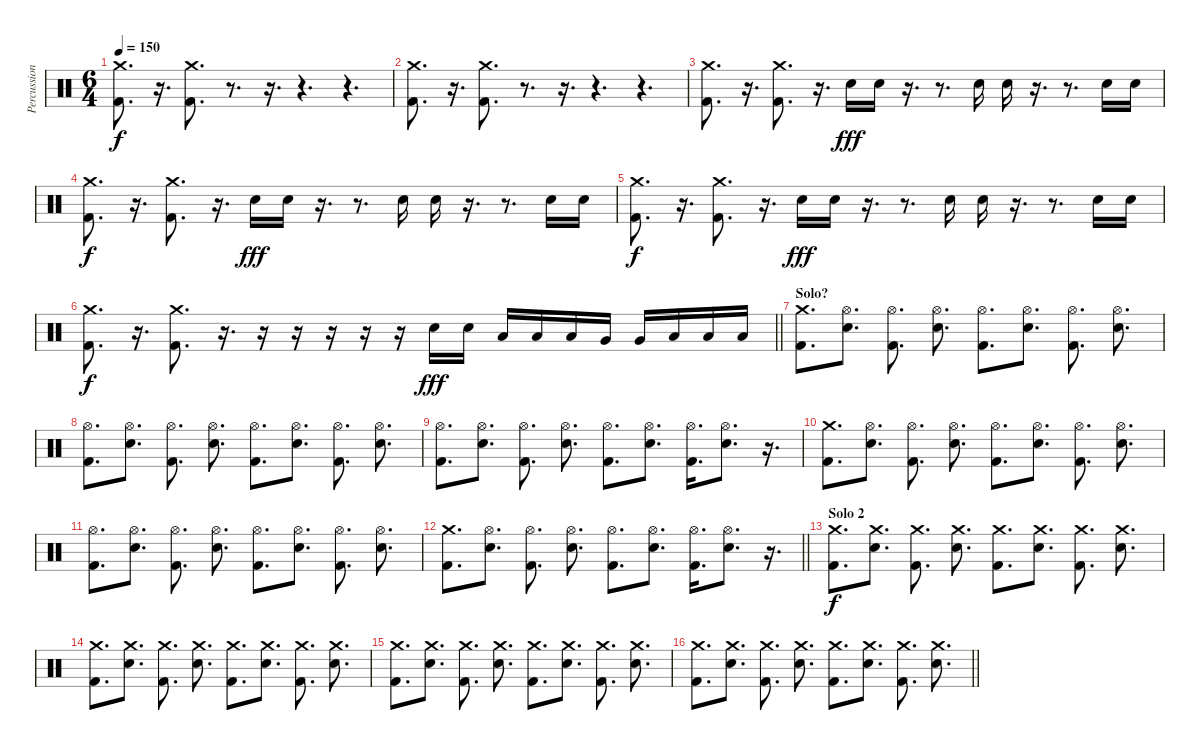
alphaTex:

\track ("Percussion" "Percussion") {solo instrument percussion}
\staff {score}
\articulation defaults
\ts (6 4)
\tempo 150
\clef neutral
\ks c
("Crash medium (hit)" "Kick (hit) 2").8{d dy f} r.16{d} ("Crash medium (hit)" "Kick (hit) 2").8{d} r.8{d} r.16{d} r.4{d} r.4{d} |
("Crash medium (hit)" "Kick (hit) 2").8{d} r.16{d} ("Crash medium (hit)" "Kick (hit) 2").8{d} r.8{d} r.16{d} r.4{d} r.4{d} |
("Crash medium (hit)" "Kick (hit) 2").8{d} r.16{d} ("Crash medium (hit)" "Kick (hit) 2").8{d} r.16{d} "Electric Snare (hit)".16{dy fff} "Electric Snare (hit)".16 r.16{d} r.8{d} "Electric Snare (hit)".16 "Electric Snare (hit)".16 r.16{d} r.8{d} "Electric Snare (hit)".16 "Electric Snare (hit)".16 |
("Crash medium (hit)" "Kick (hit) 2").8{d dy f} r.16{d} ("Crash medium (hit)" "Kick (hit) 2").8{d} r.16{d} "Electric Snare (hit)".16{dy fff} "Electric Snare (hit)".16 r.16{d} r.8{d} "Electric Snare (hit)".16 "Electric Snare (hit)".16 r.16{d} r.8{d} "Electric Snare (hit)".16 "Electric Snare (hit)".16 |
("Crash medium (hit)" "Kick (hit) 2").8{d dy f} r.16{d} ("Crash medium (hit)" "Kick (hit) 2").8{d} r.16{d} "Electric Snare (hit)".16{dy fff} "Electric Snare (hit)".16 r.16{d} r.8{d} "Electric Snare (hit)".16 "Electric Snare (hit)".16 r.16{d} r.8{d} "Electric Snare (hit)".16 "Electric Snare (hit)".16 |
\barLineRight lightlight
("Crash medium (hit)" "Kick (hit) 2").8{d dy f} r.16{d} ("Crash medium (hit)" "Kick (hit) 2").8{d} r.16{d} r.16 r.16 r.16 r.16 r.16 "Electric Snare (hit)".16{dy fff} "Electric Snare (hit)".16 "Low Tom (hit)".16 "Low Tom (hit)".16 "Low Tom (hit)".16 "Very Low Tom (hit)".16 "Very Low Tom (hit)".16 "Low Floor Tom (hit)".16 "Low Floor Tom (hit)".16 "Low Floor Tom (hit)".16 |
\section ("" "Solo?")
("Crash medium (hit)" "Kick (hit) 2").8{d} ("Hi-Hat (open)" "Electric Snare (hit)").8{d} ("Hi-Hat (open)" "Kick (hit) 2").8{d} ("Hi-Hat (open)" "Electric Snare (hit)").8{d} ("Hi-Hat (open)" "Kick (hit) 2").8{d} ("Hi-Hat (open)" "Electric Snare (hit)").8{d} ("Hi-Hat (open)" "Kick (hit) 2").8{d} ("Hi-Hat (open)" "Electric Snare (hit)").8{d} |
("Hi-Hat (open)" "Kick (hit) 2").8{d} ("Hi-Hat (open)" "Electric Snare (hit)").8{d} ("Hi-Hat (open)" "Kick (hit) 2").8{d} ("Hi-Hat (open)" "Electric Snare (hit)").8{d} ("Hi-Hat (open)" "Kick (hit) 2").8{d} ("Hi-Hat (open)" "Electric Snare (hit)").8{d} ("Hi-Hat (open)" "Kick (hit) 2").8{d} ("Hi-Hat (open)" "Electric Snare (hit)").8{d} |
("Hi-Hat (open)" "Kick (hit) 2").8{d} ("Hi-Hat (open)" "Electric Snare (hit)").8{d} ("Hi-Hat (open)" "Kick (hit) 2").8{d} ("Hi-Hat (open)" "Electric Snare (hit)").8{d} ("Hi-Hat (open)" "Kick (hit) 2").8{d} ("Hi-Hat (open)" "Electric Snare (hit)").8{d} ("Hi-Hat (open)" "Kick (hit) 2").16{d} ("Hi-Hat (open)" "Electric Snare (hit)").8{d} r.16{d} |
("Crash medium (hit)" "Kick (hit) 2").8{d} ("Hi-Hat (open)" "Electric Snare (hit)").8{d} ("Hi-Hat (open)" "Kick (hit) 2").8{d} ("Hi-Hat (open)" "Electric Snare (hit)").8{d} ("Hi-Hat (open)" "Kick (hit) 2").8{d} ("Hi-Hat (open)" "Electric Snare (hit)").8{d} ("Hi-Hat (open)" "Kick (hit) 2").8{d} ("Hi-Hat (open)" "Electric Snare (hit)").8{d} |
("Hi-Hat (open)" "Kick (hit) 2").8{d} ("Hi-Hat (open)" "Electric Snare (hit)").8{d} ("Hi-Hat (open)" "Kick (hit) 2").8{d} ("Hi-Hat (open)" "Electric Snare (hit)").8{d} ("Hi-Hat (open)" "Kick (hit) 2").8{d} ("Hi-Hat (open)" "Electric Snare (hit)").8{d} ("Hi-Hat (open)" "Kick (hit) 2").8{d} ("Hi-Hat (open)" "Electric Snare (hit)").8{d} |
\barLineRight lightlight
("Crash medium (hit)" "Kick (hit) 2").8{d} ("Hi-Hat (open)" "Electric Snare (hit)").8{d} ("Hi-Hat (open)" "Kick (hit) 2").8{d} ("Hi-Hat (open)" "Electric Snare (hit)").8{d} ("Hi-Hat (open)" "Kick (hit) 2").8{d} ("Hi-Hat (open)" "Electric Snare (hit)").8{d} ("Hi-Hat (open)" "Kick (hit) 2").16{d} ("Hi-Hat (open)" "Electric Snare (hit)").8{d} r.16{d} |
\section ("" "Solo 2")
("Crash medium (hit)" "Kick (hit) 2").8{d dy f} ("Crash medium (hit)" "Electric Snare (hit)").8{d} ("Crash medium (hit)" "Kick (hit) 2").8{d} ("Crash medium (hit)" "Electric Snare (hit)").8{d} ("Crash medium (hit)" "Kick (hit) 2").8{d} ("Crash medium (hit)" "Electric Snare (hit)").8{d} ("Crash medium (hit)" "Kick (hit) 2").8{d} ("Crash medium (hit)" "Electric Snare (hit)").8{d} |
("Crash medium (hit)" "Kick (hit) 2").8{d} ("Crash medium (hit)" "Electric Snare (hit)").8{d} ("Crash medium (hit)" "Kick (hit) 2").8{d} ("Crash medium (hit)" "Electric Snare (hit)").8{d} ("Crash medium (hit)" "Kick (hit) 2").8{d} ("Crash medium (hit)" "Electric Snare (hit)").8{d} ("Crash medium (hit)" "Kick (hit) 2").8{d} ("Crash medium (hit)" "Electric Snare (hit)").8{d} |
("Crash medium (hit)" "Kick (hit) 2").8{d} ("Crash medium (hit)" "Electric Snare (hit)").8{d} ("Crash medium (hit)" "Kick (hit) 2").8{d} ("Crash medium (hit)" "Electric Snare (hit)").8{d} ("Crash medium (hit)" "Kick (hit) 2").8{d} ("Crash medium (hit)" "Electric Snare (hit)").8{d} ("Crash medium (hit)" "Kick (hit) 2").8{d} ("Crash medium (hit)" "Electric Snare (hit)").8{d} |
\barLineRight lightlight
("Crash medium (hit)" "Kick (hit) 2").8{d} ("Crash medium (hit)" "Electric Snare (hit)").8{d} ("Crash medium (hit)" "Kick (hit) 2").8{d} ("Crash medium (hit)" "Electric Snare (hit)").8{d} ("Crash medium (hit)" "Kick (hit) 2").8{d} ("Crash medium (hit)" "Electric Snare (hit)").8{d} ("Crash medium (hit)" "Kick (hit) 2").8{d} ("Crash medium (hit)" "Electric Snare (hit)").8{d}
